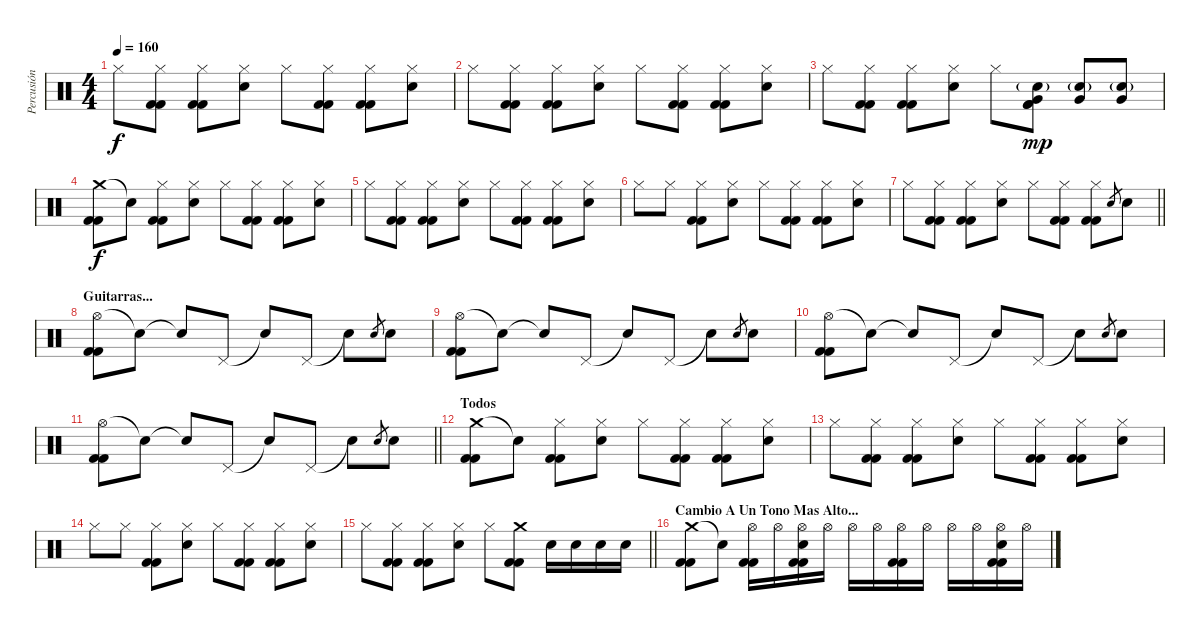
\track ("Percusión" "Percusión") {instrument percussion}
\staff {score}
\articulation defaults
\ts (4 4)
\tempo 160
\clef neutral
\ks c "Hi-Hat (closed)".8{dy f}
("Hi-Hat (closed)" "Kick (hit) 2" "Kick (hit) 2").8 ("Hi-Hat (closed)" "Kick (hit) 2" "Kick (hit) 2").8 ("Hi-Hat (closed)" "Electric Snare (hit)").8 "Hi-Hat (closed)".8 ("Hi-Hat (closed)" "Kick (hit) 2" "Kick (hit) 2").8 ("Hi-Hat (closed)" "Kick (hit) 2" "Kick (hit) 2").8 ("Hi-Hat (closed)" "Electric Snare (hit)").8 |
"Hi-Hat (closed)".8 ("Hi-Hat (closed)" "Kick (hit) 2" "Kick (hit) 2").8 ("Hi-Hat (closed)" "Kick (hit) 2" "Kick (hit) 2").8 ("Hi-Hat (closed)" "Electric Snare (hit)").8 "Hi-Hat (closed)".8 ("Hi-Hat (closed)" "Kick (hit) 2" "Kick (hit) 2").8 ("Hi-Hat (closed)" "Kick (hit) 2" "Kick (hit) 2").8 ("Hi-Hat (closed)" "Electric Snare (hit)").8 |
"Hi-Hat (closed)".8 ("Hi-Hat (closed)" "Kick (hit) 2" "Kick (hit) 2").8 ("Hi-Hat (closed)" "Kick (hit) 2" "Kick (hit) 2").8 ("Hi-Hat (closed)" "Electric Snare (hit)").8 "Hi-Hat (closed)".8 ("Very Low Tom (hit)" "Electric Snare (hit)"{g} "Kick (hit) 2" "Kick (hit) 2").8{dy mp} ("Very Low Tom (hit)" "Electric Snare (hit)"{g}).8 ("Very Low Tom (hit)" "Electric Snare (hit)"{g}).8 |
("Crash medium (hit)" "Kick (hit) 2" "Kick (hit) 2").8{dy f} "Snare (hit)"{t}.8 ("Hi-Hat (closed)" "Kick (hit) 2" "Kick (hit) 2").8 ("Hi-Hat (closed)" "Electric Snare (hit)").8 "Hi-Hat (closed)".8 ("Hi-Hat (closed)" "Kick (hit) 2" "Kick (hit) 2").8 ("Hi-Hat (closed)" "Kick (hit) 2" "Kick (hit) 2").8 ("Hi-Hat (closed)" "Electric Snare (hit)").8 |
"Hi-Hat (closed)".8 ("Hi-Hat (closed)" "Kick (hit) 2" "Kick (hit) 2").8 ("Hi-Hat (closed)" "Kick (hit) 2" "Kick (hit) 2").8 ("Hi-Hat (closed)" "Electric Snare (hit)").8 "Hi-Hat (closed)".8 ("Hi-Hat (closed)" "Kick (hit) 2" "Kick (hit) 2").8 ("Hi-Hat (closed)" "Kick (hit) 2" "Kick (hit) 2").8 ("Hi-Hat (closed)" "Electric Snare (hit)").8 |
"Hi-Hat (closed)".8 "Hi-Hat (closed)".8 ("Hi-Hat (closed)" "Kick (hit) 2" "Kick (hit) 2").8 ("Hi-Hat (closed)" "Electric Snare (hit)").8 "Hi-Hat (closed)".8 ("Hi-Hat (closed)" "Kick (hit) 2" "Kick (hit) 2").8 ("Hi-Hat (closed)" "Kick (hit) 2" "Kick (hit) 2").8 ("Hi-Hat (closed)" "Electric Snare (hit)").8 |
\barLineRight lightlight "Hi-Hat (closed)".8
("Hi-Hat (closed)" "Kick (hit) 2" "Kick (hit) 2").8 ("Hi-Hat (closed)" "Kick (hit) 2" "Kick (hit) 2").8 ("Hi-Hat (closed)" "Electric Snare (hit)").8 "Hi-Hat (closed)".8 ("Hi-Hat (closed)" "Kick (hit) 2" "Kick (hit) 2").8 ("Hi-Hat (closed)" "Kick (hit) 2" "Kick (hit) 2").8 "Electric Snare (hit)".8{gr} "Electric Snare (hit)".8 |
\section ("" "Guitarras...")
("Hi-Hat (open)" "Kick (hit) 2" "Kick (hit) 2").8 "Snare (hit)"{t}.8 "Snare (hit)"{t}.8 "Pedal Hi-Hat (hit)".8 "Snare (hit)"{t}.8 "Pedal Hi-Hat (hit)".8 "Snare (hit)"{t}.8 "Electric Snare (hit)".8{gr} "Electric Snare (hit)".8 |
("Hi-Hat (open)" "Kick (hit) 2" "Kick (hit) 2").8 "Snare (hit)"{t}.8 "Snare (hit)"{t}.8 "Pedal Hi-Hat (hit)".8 "Snare (hit)"{t}.8 "Pedal Hi-Hat (hit)".8 "Snare (hit)"{t}.8 "Electric Snare (hit)".8{gr} "Electric Snare (hit)".8 |
("Hi-Hat (open)" "Kick (hit) 2" "Kick (hit) 2").8 "Snare (hit)"{t}.8 "Snare (hit)"{t}.8 "Pedal Hi-Hat (hit)".8 "Snare (hit)"{t}.8 "Pedal Hi-Hat (hit)".8 "Snare (hit)"{t}.8 "Electric Snare (hit)".8{gr} "Electric Snare (hit)".8 |
\barLineRight lightlight
("Hi-Hat (open)" "Kick (hit) 2" "Kick (hit) 2").8 "Snare (hit)"{t}.8 "Snare (hit)"{t}.8 "Pedal Hi-Hat (hit)".8 "Snare (hit)"{t}.8 "Pedal Hi-Hat (hit)".8 "Snare (hit)"{t}.8 "Electric Snare (hit)".8{gr} "Electric Snare (hit)".8 |
\section ("" "Todos")
("Crash medium (hit)" "Kick (hit) 2" "Kick (hit) 2").8 "Snare (hit)"{t}.8 ("Hi-Hat (closed)" "Kick (hit) 2" "Kick (hit) 2").8 ("Hi-Hat (closed)" "Electric Snare (hit)").8 "Hi-Hat (closed)".8 ("Hi-Hat (closed)" "Kick (hit) 2" "Kick (hit) 2").8 ("Hi-Hat (closed)" "Kick (hit) 2" "Kick (hit) 2").8 ("Hi-Hat (closed)" "Electric Snare (hit)").8 |
"Hi-Hat (closed)".8 ("Hi-Hat (closed)" "Kick (hit) 2" "Kick (hit) 2").8 ("Hi-Hat (closed)" "Kick (hit) 2" "Kick (hit) 2").8 ("Hi-Hat (closed)" "Electric Snare (hit)").8 "Hi-Hat (closed)".8 ("Hi-Hat (closed)" "Kick (hit) 2" "Kick (hit) 2").8 ("Hi-Hat (closed)" "Kick (hit) 2" "Kick (hit) 2").8 ("Hi-Hat (closed)" "Electric Snare (hit)").8 |
"Hi-Hat (closed)".8 "Hi-Hat (closed)".8 ("Hi-Hat (closed)" "Kick (hit) 2" "Kick (hit) 2").8 ("Hi-Hat (closed)" "Electric Snare (hit)").8 "Hi-Hat (closed)".8 ("Hi-Hat (closed)" "Kick (hit) 2" "Kick (hit) 2").8 ("Hi-Hat (closed)" "Kick (hit) 2" "Kick (hit) 2").8 ("Hi-Hat (closed)" "Electric Snare (hit)").8 |
\barLineRight lightlight "Hi-Hat (closed)".8
("Hi-Hat (closed)" "Kick (hit) 2" "Kick (hit) 2").8 ("Hi-Hat (closed)" "Kick (hit) 2" "Kick (hit) 2").8 ("Hi-Hat (closed)" "Electric Snare (hit)").8 "Hi-Hat (closed)".8 ("Crash medium (hit)" "Kick (hit) 2" "Kick (hit) 2").8 "Electric Snare (hit)".16 "Electric Snare (hit)".16 "Electric Snare (hit)".16 "Electric Snare (hit)".16 |
\section ("" "Cambio A Un Tono Mas Alto...")
("Crash medium (hit)" "Kick (hit) 2" "Kick (hit) 2").8 "Snare (hit)"{t}.8 ("Hi-Hat (open)" "Kick (hit) 2" "Kick (hit) 2").16 "Hi-Hat (open)".16 ("Hi-Hat (open)" "Electric Snare (hit)" "Kick (hit) 2" "Kick (hit) 2").16 "Hi-Hat (open)".16 "Hi-Hat (open)".16 "Hi-Hat (open)".16 ("Hi-Hat (open)" "Kick (hit) 2" "Kick (hit) 2").16 "Hi-Hat (open)".16 "Hi-Hat (open)".16 "Hi-Hat (open)".16 ("Hi-Hat (open)" "Electric Snare (hit)" "Kick (hit) 2" "Kick (hit) 2").16 "Hi-Hat (open)".16
